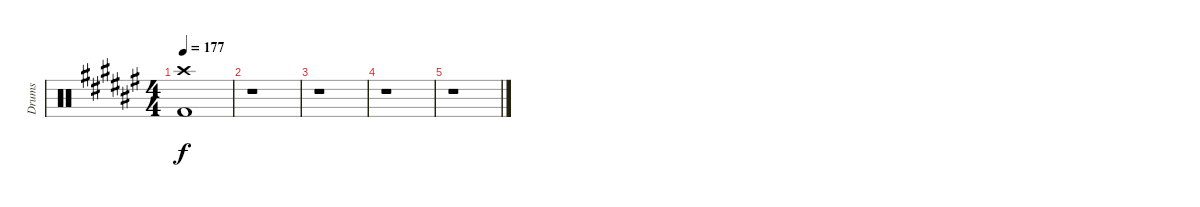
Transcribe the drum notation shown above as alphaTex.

\track ("Drums" "Drums") {instrument percussion}
\staff {score}
\articulation defaults
\ts (4 4)
\tempo 177
\clef neutral
\ks d#minor
("Crash high (hit)" "Kick (hit) 2").1{dy f} |
r.1 |
r.1 |
r.1 |
r.1
